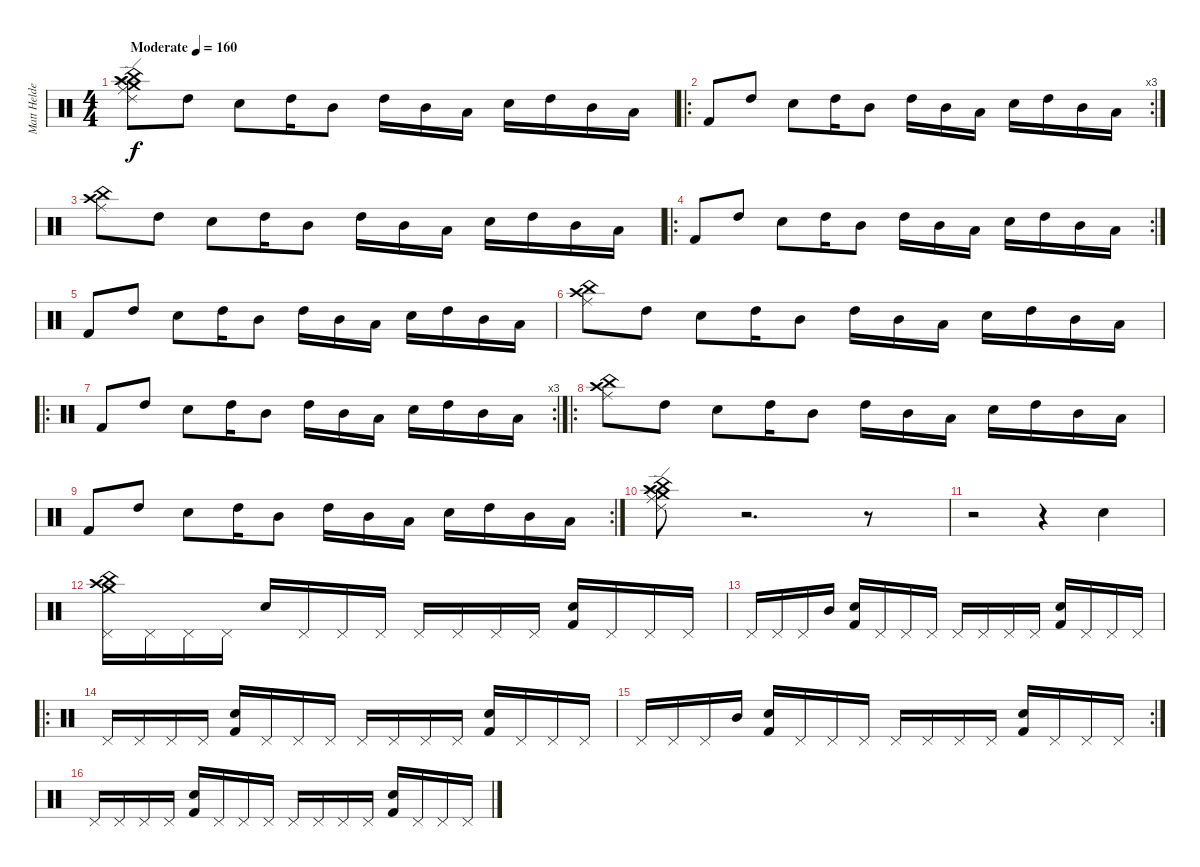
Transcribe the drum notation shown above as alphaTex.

\track ("Matt Helders" "Matt Helde") {instrument percussion}
\staff {score}
\articulation defaults
\ts (4 4)
\tempo (160 "Moderate")
\clef neutral
\ks c
("Crash high (hit)" "China (hit)" "Ride (middle)" "Splash (hit)" "Crash medium (hit)" "Ride (edge) 2").8{dy f} "High Tom (hit)".8 "Snare (hit) 2".8 "High Tom (hit)".16 "Mid Tom (hit)".8 "High Tom (hit)".16 "Mid Tom (hit)".16 "Low Tom (hit)".16 "Snare (hit) 2".16 "High Tom (hit)".16 "Mid Tom (hit)".16 "Low Tom (hit)".16 |
\ro
\rc 3 "Kick (hit) 2".8 "High Tom (hit)".8 "Snare (hit) 2".8 "High Tom (hit)".16 "Mid Tom (hit)".8 "High Tom (hit)".16 "Mid Tom (hit)".16 "Low Tom (hit)".16 "Snare (hit) 2".16 "High Tom (hit)".16 "Mid Tom (hit)".16 "Low Tom (hit)".16
|
("Crash high (hit)" "China (hit)" "Ride (middle)").8 "High Tom (hit)".8 "Snare (hit) 2".8 "High Tom (hit)".16 "Mid Tom (hit)".8 "High Tom (hit)".16 "Mid Tom (hit)".16 "Low Tom (hit)".16 "Snare (hit) 2".16 "High Tom (hit)".16 "Mid Tom (hit)".16 "Low Tom (hit)".16 |
\ro
\rc 2 "Kick (hit) 2".8 "High Tom (hit)".8 "Snare (hit) 2".8 "High Tom (hit)".16 "Mid Tom (hit)".8 "High Tom (hit)".16 "Mid Tom (hit)".16 "Low Tom (hit)".16 "Snare (hit) 2".16 "High Tom (hit)".16 "Mid Tom (hit)".16 "Low Tom (hit)".16
|
"Kick (hit) 2".8 "High Tom (hit)".8 "Snare (hit) 2".8 "High Tom (hit)".16 "Mid Tom (hit)".8 "High Tom (hit)".16 "Mid Tom (hit)".16 "Low Tom (hit)".16 "Snare (hit) 2".16 "High Tom (hit)".16 "Mid Tom (hit)".16 "Low Tom (hit)".16 |
("Crash high (hit)" "China (hit)" "Ride (middle)").8 "High Tom (hit)".8 "Snare (hit) 2".8 "High Tom (hit)".16 "Mid Tom (hit)".8 "High Tom (hit)".16 "Mid Tom (hit)".16 "Low Tom (hit)".16 "Snare (hit) 2".16 "High Tom (hit)".16 "Mid Tom (hit)".16 "Low Tom (hit)".16 |
\ro
\rc 3 "Kick (hit) 2".8 "High Tom (hit)".8 "Snare (hit) 2".8 "High Tom (hit)".16 "Mid Tom (hit)".8 "High Tom (hit)".16 "Mid Tom (hit)".16 "Low Tom (hit)".16 "Snare (hit) 2".16 "High Tom (hit)".16 "Mid Tom (hit)".16 "Low Tom (hit)".16
|
\ro
("Crash high (hit)" "China (hit)" "Ride (middle)").8 "High Tom (hit)".8 "Snare (hit) 2".8 "High Tom (hit)".16 "Mid Tom (hit)".8 "High Tom (hit)".16 "Mid Tom (hit)".16 "Low Tom (hit)".16 "Snare (hit) 2".16 "High Tom (hit)".16 "Mid Tom (hit)".16 "Low Tom (hit)".16 |
\rc 2 "Kick (hit) 2".8 "High Tom (hit)".8 "Snare (hit) 2".8 "High Tom (hit)".16 "Mid Tom (hit)".8 "High Tom (hit)".16 "Mid Tom (hit)".16 "Low Tom (hit)".16 "Snare (hit) 2".16 "High Tom (hit)".16 "Mid Tom (hit)".16 "Low Tom (hit)".16
|
("Crash high (hit)" "China (hit)" "Ride (middle)" "Splash (hit)" "Crash medium (hit)" "Ride (edge) 2").8 r.2{d} r.8 |
r.2 r.4 "Snare (hit) 2".4 |
("Pedal Hi-Hat (hit)" "Crash medium (hit)" "Crash high (hit)" "China (hit)").16 "Pedal Hi-Hat (hit)".16 "Pedal Hi-Hat (hit)".16 "Pedal Hi-Hat (hit)".16 "Snare (hit) 2".16 "Pedal Hi-Hat (hit)".16 "Pedal Hi-Hat (hit)".16 "Pedal Hi-Hat (hit)".16 "Pedal Hi-Hat (hit)".16 "Pedal Hi-Hat (hit)".16 "Pedal Hi-Hat (hit)".16 "Pedal Hi-Hat (hit)".16 ("Snare (hit) 2" "Kick (hit) 2").16 "Pedal Hi-Hat (hit)".16 "Pedal Hi-Hat (hit)".16 "Pedal Hi-Hat (hit)".16 |
"Pedal Hi-Hat (hit)".16 "Pedal Hi-Hat (hit)".16 "Pedal Hi-Hat (hit)".16 "Mid Tom (hit)".16 ("Snare (hit) 2" "Kick (hit) 2").16 "Pedal Hi-Hat (hit)".16 "Pedal Hi-Hat (hit)".16 "Pedal Hi-Hat (hit)".16 "Pedal Hi-Hat (hit)".16 "Pedal Hi-Hat (hit)".16 "Pedal Hi-Hat (hit)".16 "Pedal Hi-Hat (hit)".16 ("Snare (hit) 2" "Kick (hit) 2").16 "Pedal Hi-Hat (hit)".16 "Pedal Hi-Hat (hit)".16 "Pedal Hi-Hat (hit)".16 |
\ro "Pedal Hi-Hat (hit)".16 "Pedal Hi-Hat (hit)".16 "Pedal Hi-Hat (hit)".16 "Pedal Hi-Hat (hit)".16
("Snare (hit) 2" "Kick (hit) 2").16 "Pedal Hi-Hat (hit)".16 "Pedal Hi-Hat (hit)".16 "Pedal Hi-Hat (hit)".16 "Pedal Hi-Hat (hit)".16 "Pedal Hi-Hat (hit)".16 "Pedal Hi-Hat (hit)".16 "Pedal Hi-Hat (hit)".16 ("Snare (hit) 2" "Kick (hit) 2").16 "Pedal Hi-Hat (hit)".16 "Pedal Hi-Hat (hit)".16 "Pedal Hi-Hat (hit)".16 |
\rc 2 "Pedal Hi-Hat (hit)".16 "Pedal Hi-Hat (hit)".16 "Pedal Hi-Hat (hit)".16 "Mid Tom (hit)".16
("Snare (hit) 2" "Kick (hit) 2").16 "Pedal Hi-Hat (hit)".16 "Pedal Hi-Hat (hit)".16 "Pedal Hi-Hat (hit)".16 "Pedal Hi-Hat (hit)".16 "Pedal Hi-Hat (hit)".16 "Pedal Hi-Hat (hit)".16 "Pedal Hi-Hat (hit)".16 ("Snare (hit) 2" "Kick (hit) 2").16 "Pedal Hi-Hat (hit)".16 "Pedal Hi-Hat (hit)".16 "Pedal Hi-Hat (hit)".16 |
"Pedal Hi-Hat (hit)".16 "Pedal Hi-Hat (hit)".16 "Pedal Hi-Hat (hit)".16 "Pedal Hi-Hat (hit)".16 ("Snare (hit) 2" "Kick (hit) 2").16 "Pedal Hi-Hat (hit)".16 "Pedal Hi-Hat (hit)".16 "Pedal Hi-Hat (hit)".16 "Pedal Hi-Hat (hit)".16 "Pedal Hi-Hat (hit)".16 "Pedal Hi-Hat (hit)".16 "Pedal Hi-Hat (hit)".16 ("Snare (hit) 2" "Kick (hit) 2").16 "Pedal Hi-Hat (hit)".16 "Pedal Hi-Hat (hit)".16 "Pedal Hi-Hat (hit)".16
